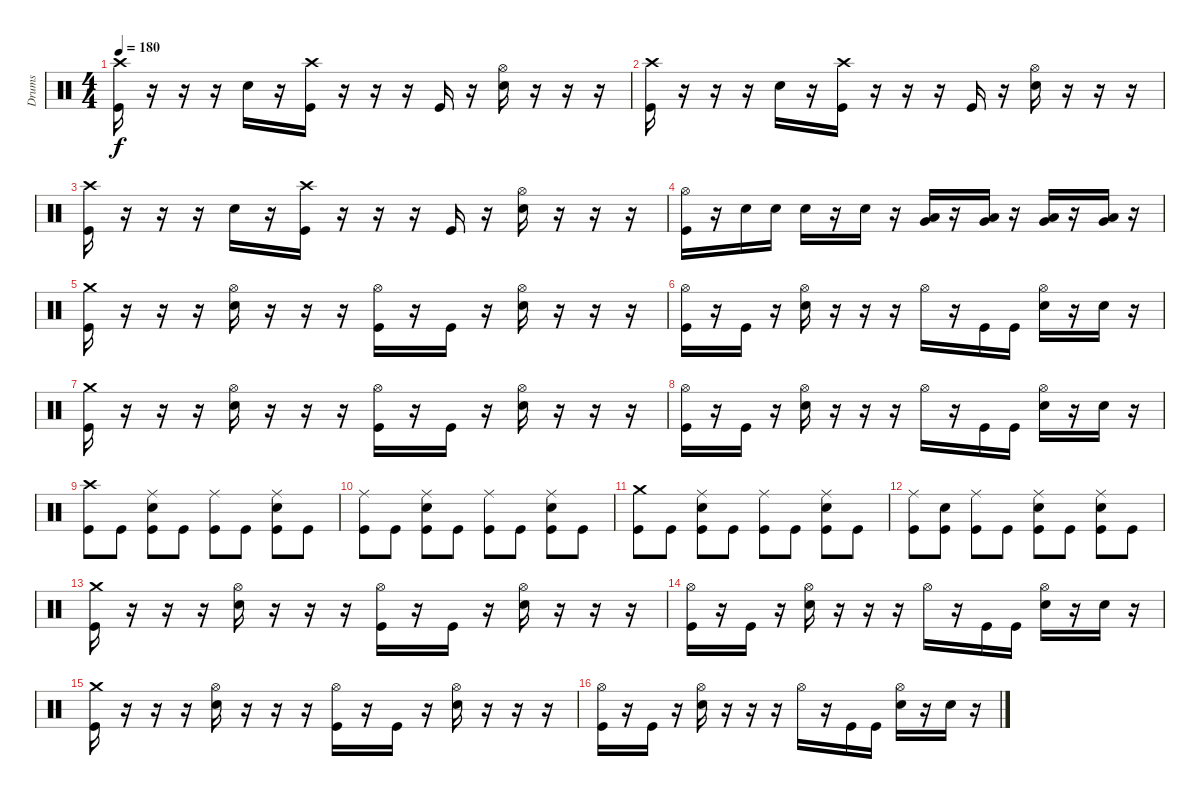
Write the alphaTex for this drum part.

\track ("Drums" "Drums") {instrument percussion}
\staff {score}
\articulation defaults
\ts (4 4)
\tempo 180
\clef neutral
\ks c
("Crash high (hit)" "Kick (hit)").16{dy f} r.16 r.16 r.16 "Snare (hit) 2".16 r.16 ("Crash high (hit)" "Kick (hit)").16 r.16 r.16 r.16 "Kick (hit)".16 r.16 ("Hi-Hat (open)" "Snare (hit) 2").16 r.16 r.16 r.16 |
("Crash high (hit)" "Kick (hit)").16 r.16 r.16 r.16 "Snare (hit) 2".16 r.16 ("Crash high (hit)" "Kick (hit)").16 r.16 r.16 r.16 "Kick (hit)".16 r.16 ("Hi-Hat (open)" "Snare (hit) 2").16 r.16 r.16 r.16 |
("Crash high (hit)" "Kick (hit)").16 r.16 r.16 r.16 "Snare (hit) 2".16 r.16 ("Crash high (hit)" "Kick (hit)").16 r.16 r.16 r.16 "Kick (hit)".16 r.16 ("Hi-Hat (open)" "Snare (hit) 2").16 r.16 r.16 r.16 |
("Hi-Hat (open)" "Kick (hit)").16 r.16 "Snare (hit) 2".16 "Snare (hit) 2".16 "Snare (hit) 2".16 r.16 "Snare (hit) 2".16 r.16 ("Low Tom (hit)" "Very Low Tom (hit)").16 r.16 ("Low Tom (hit)" "Very Low Tom (hit)").16 r.16 ("Very Low Tom (hit)" "Low Floor Tom (hit)").16 r.16 ("Very Low Tom (hit)" "Low Floor Tom (hit)").16 r.16 |
("Crash medium (hit)" "Kick (hit)").16 r.16 r.16 r.16 ("Hi-Hat (open)" "Snare (hit) 2").16 r.16 r.16 r.16 ("Hi-Hat (open)" "Kick (hit)").16 r.16 "Kick (hit)".16 r.16 ("Hi-Hat (open)" "Snare (hit) 2").16 r.16 r.16 r.16 |
("Hi-Hat (open)" "Kick (hit)").16 r.16 "Kick (hit)".16 r.16 ("Hi-Hat (open)" "Snare (hit) 2").16 r.16 r.16 r.16 "Hi-Hat (open)".16 r.16 "Kick (hit)".16 "Kick (hit)".16 ("Hi-Hat (open)" "Snare (hit) 2").16 r.16 "Snare (hit) 2".16 r.16 |
("Crash medium (hit)" "Kick (hit)").16 r.16 r.16 r.16 ("Hi-Hat (open)" "Snare (hit) 2").16 r.16 r.16 r.16 ("Hi-Hat (open)" "Kick (hit)").16 r.16 "Kick (hit)".16 r.16 ("Hi-Hat (open)" "Snare (hit) 2").16 r.16 r.16 r.16 |
("Hi-Hat (open)" "Kick (hit)").16 r.16 "Kick (hit)".16 r.16 ("Hi-Hat (open)" "Snare (hit) 2").16 r.16 r.16 r.16 "Hi-Hat (open)".16 r.16 "Kick (hit)".16 "Kick (hit)".16 ("Hi-Hat (open)" "Snare (hit) 2").16 r.16 "Snare (hit) 2".16 r.16 |
("Crash high (hit)" "Kick (hit)").8 "Kick (hit)".8 ("Ride (middle)" "Snare (hit) 2" "Kick (hit)").8 "Kick (hit)".8 ("Ride (middle)" "Kick (hit)").8 "Kick (hit)".8 ("Ride (middle)" "Snare (hit) 2" "Kick (hit)").8 "Kick (hit)".8 |
("Ride (middle)" "Kick (hit)").8 "Kick (hit)".8 ("Ride (middle)" "Snare (hit) 2" "Kick (hit)").8 "Kick (hit)".8 ("Ride (middle)" "Kick (hit)").8 "Kick (hit)".8 ("Ride (middle)" "Snare (hit) 2" "Kick (hit)").8 "Kick (hit)".8 |
("Crash medium (hit)" "Kick (hit)").8 "Kick (hit)".8 ("Ride (middle)" "Snare (hit) 2" "Kick (hit)").8 "Kick (hit)".8 ("Ride (middle)" "Kick (hit)").8 "Kick (hit)".8 ("Ride (middle)" "Snare (hit) 2" "Kick (hit)").8 "Kick (hit)".8 |
("Ride (middle)" "Kick (hit)").8 ("Snare (hit) 2" "Kick (hit)").8 ("Ride (middle)" "Kick (hit)").8 "Kick (hit)".8 ("Ride (middle)" "Snare (hit) 2" "Kick (hit)").8 "Kick (hit)".8 ("Ride (middle)" "Snare (hit) 2" "Kick (hit)").8 "Kick (hit)".8 |
("Crash medium (hit)" "Kick (hit)").16 r.16 r.16 r.16 ("Hi-Hat (open)" "Snare (hit) 2").16 r.16 r.16 r.16 ("Hi-Hat (open)" "Kick (hit)").16 r.16 "Kick (hit)".16 r.16 ("Hi-Hat (open)" "Snare (hit) 2").16 r.16 r.16 r.16 |
("Hi-Hat (open)" "Kick (hit)").16 r.16 "Kick (hit)".16 r.16 ("Hi-Hat (open)" "Snare (hit) 2").16 r.16 r.16 r.16 "Hi-Hat (open)".16 r.16 "Kick (hit)".16 "Kick (hit)".16 ("Hi-Hat (open)" "Snare (hit) 2").16 r.16 "Snare (hit) 2".16 r.16 |
("Crash medium (hit)" "Kick (hit)").16 r.16 r.16 r.16 ("Hi-Hat (open)" "Snare (hit) 2").16 r.16 r.16 r.16 ("Hi-Hat (open)" "Kick (hit)").16 r.16 "Kick (hit)".16 r.16 ("Hi-Hat (open)" "Snare (hit) 2").16 r.16 r.16 r.16 |
("Hi-Hat (open)" "Kick (hit)").16 r.16 "Kick (hit)".16 r.16 ("Hi-Hat (open)" "Snare (hit) 2").16 r.16 r.16 r.16 "Hi-Hat (open)".16 r.16 "Kick (hit)".16 "Kick (hit)".16 ("Hi-Hat (open)" "Snare (hit) 2").16 r.16 "Snare (hit) 2".16 r.16
